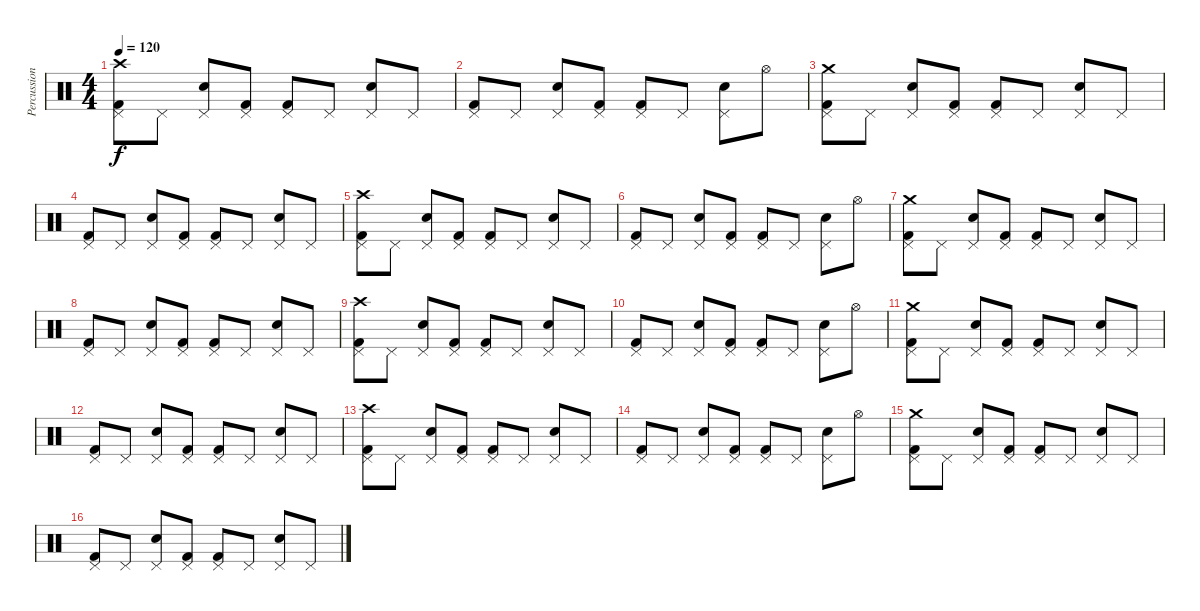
\track ("Percussion" "Percussion") {instrument percussion}
\staff {score}
\articulation defaults
\ts (4 4)
\tempo 120
\clef neutral
\ks c
("Crash high (hit)" "Pedal Hi-Hat (hit)" "Kick (hit) 2").8{dy f} "Pedal Hi-Hat (hit)".8 ("Snare (hit) 2" "Pedal Hi-Hat (hit)").8 ("Pedal Hi-Hat (hit)" "Kick (hit) 2").8 ("Pedal Hi-Hat (hit)" "Kick (hit) 2").8 "Pedal Hi-Hat (hit)".8 ("Snare (hit) 2" "Pedal Hi-Hat (hit)").8 "Pedal Hi-Hat (hit)".8 |
("Pedal Hi-Hat (hit)" "Kick (hit) 2").8 "Pedal Hi-Hat (hit)".8 ("Snare (hit) 2" "Pedal Hi-Hat (hit)").8 ("Pedal Hi-Hat (hit)" "Kick (hit) 2").8 ("Pedal Hi-Hat (hit)" "Kick (hit) 2").8 "Pedal Hi-Hat (hit)".8 ("Snare (hit) 2" "Pedal Hi-Hat (hit)").8 "Hi-Hat (open)".8 |
("Crash medium (hit)" "Pedal Hi-Hat (hit)" "Kick (hit) 2").8 "Pedal Hi-Hat (hit)".8 ("Snare (hit) 2" "Pedal Hi-Hat (hit)").8 ("Pedal Hi-Hat (hit)" "Kick (hit) 2").8 ("Pedal Hi-Hat (hit)" "Kick (hit) 2").8 "Pedal Hi-Hat (hit)".8 ("Snare (hit) 2" "Pedal Hi-Hat (hit)").8 "Pedal Hi-Hat (hit)".8 |
("Pedal Hi-Hat (hit)" "Kick (hit) 2").8 "Pedal Hi-Hat (hit)".8 ("Snare (hit) 2" "Pedal Hi-Hat (hit)").8 ("Pedal Hi-Hat (hit)" "Kick (hit) 2").8 ("Pedal Hi-Hat (hit)" "Kick (hit) 2").8 "Pedal Hi-Hat (hit)".8 ("Snare (hit) 2" "Pedal Hi-Hat (hit)").8 "Pedal Hi-Hat (hit)".8 |
("Crash high (hit)" "Pedal Hi-Hat (hit)" "Kick (hit) 2").8 "Pedal Hi-Hat (hit)".8 ("Snare (hit) 2" "Pedal Hi-Hat (hit)").8 ("Pedal Hi-Hat (hit)" "Kick (hit) 2").8 ("Pedal Hi-Hat (hit)" "Kick (hit) 2").8 "Pedal Hi-Hat (hit)".8 ("Snare (hit) 2" "Pedal Hi-Hat (hit)").8 "Pedal Hi-Hat (hit)".8 |
("Pedal Hi-Hat (hit)" "Kick (hit) 2").8 "Pedal Hi-Hat (hit)".8 ("Snare (hit) 2" "Pedal Hi-Hat (hit)").8 ("Pedal Hi-Hat (hit)" "Kick (hit) 2").8 ("Pedal Hi-Hat (hit)" "Kick (hit) 2").8 "Pedal Hi-Hat (hit)".8 ("Snare (hit) 2" "Pedal Hi-Hat (hit)").8 "Hi-Hat (open)".8 |
("Crash medium (hit)" "Pedal Hi-Hat (hit)" "Kick (hit) 2").8 "Pedal Hi-Hat (hit)".8 ("Snare (hit) 2" "Pedal Hi-Hat (hit)").8 ("Pedal Hi-Hat (hit)" "Kick (hit) 2").8 ("Pedal Hi-Hat (hit)" "Kick (hit) 2").8 "Pedal Hi-Hat (hit)".8 ("Snare (hit) 2" "Pedal Hi-Hat (hit)").8 "Pedal Hi-Hat (hit)".8 |
("Pedal Hi-Hat (hit)" "Kick (hit) 2").8 "Pedal Hi-Hat (hit)".8 ("Snare (hit) 2" "Pedal Hi-Hat (hit)").8 ("Pedal Hi-Hat (hit)" "Kick (hit) 2").8 ("Pedal Hi-Hat (hit)" "Kick (hit) 2").8 "Pedal Hi-Hat (hit)".8 ("Snare (hit) 2" "Pedal Hi-Hat (hit)").8 "Pedal Hi-Hat (hit)".8 |
("Crash high (hit)" "Pedal Hi-Hat (hit)" "Kick (hit) 2").8 "Pedal Hi-Hat (hit)".8 ("Snare (hit) 2" "Pedal Hi-Hat (hit)").8 ("Pedal Hi-Hat (hit)" "Kick (hit) 2").8 ("Pedal Hi-Hat (hit)" "Kick (hit) 2").8 "Pedal Hi-Hat (hit)".8 ("Snare (hit) 2" "Pedal Hi-Hat (hit)").8 "Pedal Hi-Hat (hit)".8 |
("Pedal Hi-Hat (hit)" "Kick (hit) 2").8 "Pedal Hi-Hat (hit)".8 ("Snare (hit) 2" "Pedal Hi-Hat (hit)").8 ("Pedal Hi-Hat (hit)" "Kick (hit) 2").8 ("Pedal Hi-Hat (hit)" "Kick (hit) 2").8 "Pedal Hi-Hat (hit)".8 ("Snare (hit) 2" "Pedal Hi-Hat (hit)").8 "Hi-Hat (open)".8 |
("Crash medium (hit)" "Pedal Hi-Hat (hit)" "Kick (hit) 2").8 "Pedal Hi-Hat (hit)".8 ("Snare (hit) 2" "Pedal Hi-Hat (hit)").8 ("Pedal Hi-Hat (hit)" "Kick (hit) 2").8 ("Pedal Hi-Hat (hit)" "Kick (hit) 2").8 "Pedal Hi-Hat (hit)".8 ("Snare (hit) 2" "Pedal Hi-Hat (hit)").8 "Pedal Hi-Hat (hit)".8 |
("Pedal Hi-Hat (hit)" "Kick (hit) 2").8 "Pedal Hi-Hat (hit)".8 ("Snare (hit) 2" "Pedal Hi-Hat (hit)").8 ("Pedal Hi-Hat (hit)" "Kick (hit) 2").8 ("Pedal Hi-Hat (hit)" "Kick (hit) 2").8 "Pedal Hi-Hat (hit)".8 ("Snare (hit) 2" "Pedal Hi-Hat (hit)").8 "Pedal Hi-Hat (hit)".8 |
("Crash high (hit)" "Pedal Hi-Hat (hit)" "Kick (hit) 2").8 "Pedal Hi-Hat (hit)".8 ("Snare (hit) 2" "Pedal Hi-Hat (hit)").8 ("Pedal Hi-Hat (hit)" "Kick (hit) 2").8 ("Pedal Hi-Hat (hit)" "Kick (hit) 2").8 "Pedal Hi-Hat (hit)".8 ("Snare (hit) 2" "Pedal Hi-Hat (hit)").8 "Pedal Hi-Hat (hit)".8 |
("Pedal Hi-Hat (hit)" "Kick (hit) 2").8 "Pedal Hi-Hat (hit)".8 ("Snare (hit) 2" "Pedal Hi-Hat (hit)").8 ("Pedal Hi-Hat (hit)" "Kick (hit) 2").8 ("Pedal Hi-Hat (hit)" "Kick (hit) 2").8 "Pedal Hi-Hat (hit)".8 ("Snare (hit) 2" "Pedal Hi-Hat (hit)").8 "Hi-Hat (open)".8 |
("Crash medium (hit)" "Pedal Hi-Hat (hit)" "Kick (hit) 2").8 "Pedal Hi-Hat (hit)".8 ("Snare (hit) 2" "Pedal Hi-Hat (hit)").8 ("Pedal Hi-Hat (hit)" "Kick (hit) 2").8 ("Pedal Hi-Hat (hit)" "Kick (hit) 2").8 "Pedal Hi-Hat (hit)".8 ("Snare (hit) 2" "Pedal Hi-Hat (hit)").8 "Pedal Hi-Hat (hit)".8 |
("Pedal Hi-Hat (hit)" "Kick (hit) 2").8 "Pedal Hi-Hat (hit)".8 ("Snare (hit) 2" "Pedal Hi-Hat (hit)").8 ("Pedal Hi-Hat (hit)" "Kick (hit) 2").8 ("Pedal Hi-Hat (hit)" "Kick (hit) 2").8 "Pedal Hi-Hat (hit)".8 ("Snare (hit) 2" "Pedal Hi-Hat (hit)").8 "Pedal Hi-Hat (hit)".8
